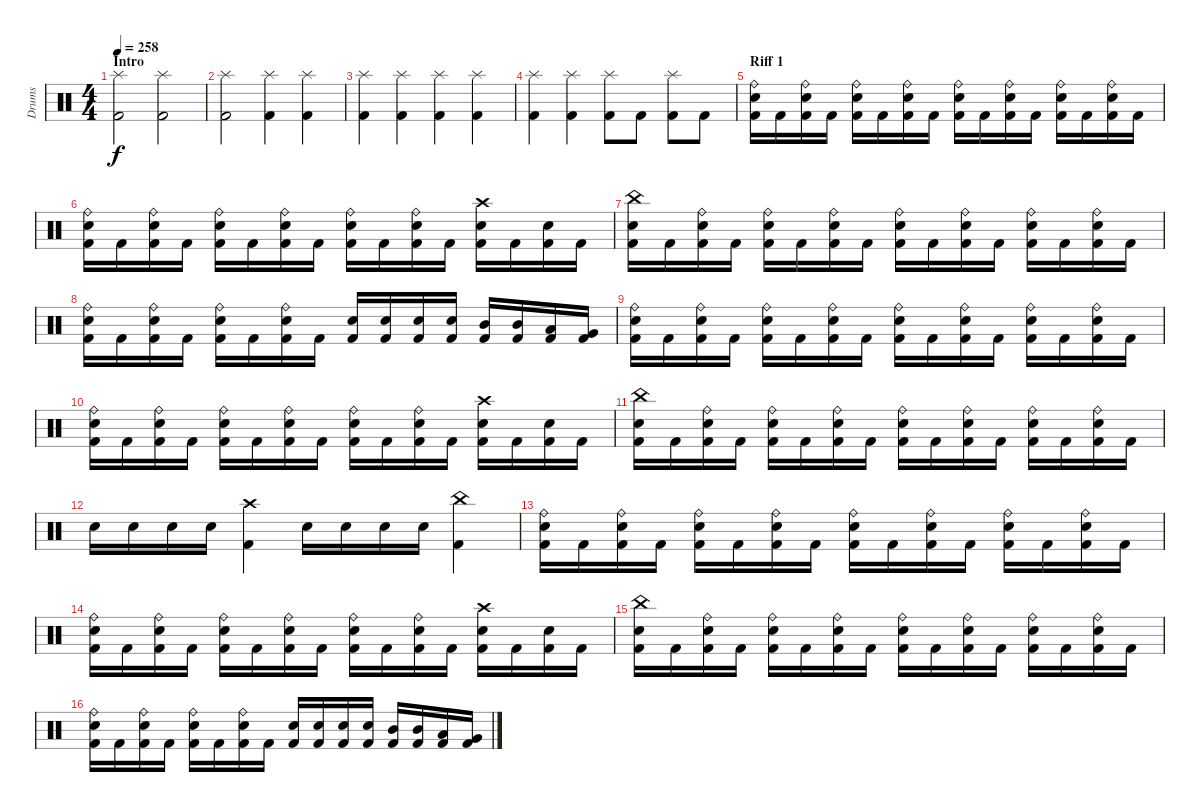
\track ("Drums" "Drums") {instrument percussion}
\staff {score}
\articulation defaults
\ts (4 4)
\section ("" "Intro")
\tempo 258
\clef neutral
\ks c
("Kick (hit) 2" "Splash (hit)").2{dy f} ("Kick (hit) 2" "Splash (hit)").2 |
("Kick (hit) 2" "Splash (hit)").2 ("Kick (hit) 2" "Splash (hit)").4 ("Kick (hit) 2" "Splash (hit)").4 |
("Kick (hit) 2" "Splash (hit)").4 ("Kick (hit) 2" "Splash (hit)").4 ("Kick (hit) 2" "Splash (hit)").4 ("Kick (hit) 2" "Splash (hit)").4 |
("Kick (hit) 2" "Splash (hit)").4 ("Kick (hit) 2" "Splash (hit)").4 ("Kick (hit) 2" "Splash (hit)").8 "Kick (hit) 2".8 ("Kick (hit) 2" "Splash (hit)").8 "Kick (hit) 2".8 |
\section ("" "Riff 1")
("Kick (hit) 2" "Snare (hit) 2" "Ride (bell)").16 "Kick (hit) 2".16 ("Kick (hit) 2" "Snare (hit) 2" "Ride (bell)").16 "Kick (hit) 2".16 ("Kick (hit) 2" "Snare (hit) 2" "Ride (bell)").16 "Kick (hit) 2".16 ("Kick (hit) 2" "Snare (hit) 2" "Ride (bell)").16 "Kick (hit) 2".16 ("Kick (hit) 2" "Snare (hit) 2" "Ride (bell)").16 "Kick (hit) 2".16 ("Kick (hit) 2" "Snare (hit) 2" "Ride (bell)").16 "Kick (hit) 2".16 ("Kick (hit) 2" "Snare (hit) 2" "Ride (bell)").16 "Kick (hit) 2".16 ("Kick (hit) 2" "Snare (hit) 2" "Ride (bell)").16 "Kick (hit) 2".16 |
("Kick (hit) 2" "Snare (hit) 2" "Ride (bell)").16 "Kick (hit) 2".16 ("Kick (hit) 2" "Snare (hit) 2" "Ride (bell)").16 "Kick (hit) 2".16 ("Kick (hit) 2" "Snare (hit) 2" "Ride (bell)").16 "Kick (hit) 2".16 ("Kick (hit) 2" "Snare (hit) 2" "Ride (bell)").16 "Kick (hit) 2".16 ("Kick (hit) 2" "Snare (hit) 2" "Ride (bell)").16 "Kick (hit) 2".16 ("Kick (hit) 2" "Snare (hit) 2" "Ride (bell)").16 "Kick (hit) 2".16 ("Kick (hit) 2" "Snare (hit) 2" "Crash high (hit)").16 "Kick (hit) 2".16 ("Kick (hit) 2" "Snare (hit) 2").16 "Kick (hit) 2".16 |
("Kick (hit) 2" "Snare (hit) 2" "China (hit)").16 "Kick (hit) 2".16 ("Kick (hit) 2" "Snare (hit) 2" "Ride (bell)").16 "Kick (hit) 2".16 ("Kick (hit) 2" "Snare (hit) 2" "Ride (bell)").16 "Kick (hit) 2".16 ("Kick (hit) 2" "Snare (hit) 2" "Ride (bell)").16 "Kick (hit) 2".16 ("Kick (hit) 2" "Snare (hit) 2" "Ride (bell)").16 "Kick (hit) 2".16 ("Kick (hit) 2" "Snare (hit) 2" "Ride (bell)").16 "Kick (hit) 2".16 ("Kick (hit) 2" "Snare (hit) 2" "Ride (bell)").16 "Kick (hit) 2".16 ("Kick (hit) 2" "Snare (hit) 2" "Ride (bell)").16 "Kick (hit) 2".16 |
("Kick (hit) 2" "Snare (hit) 2" "Ride (bell)").16 "Kick (hit) 2".16 ("Kick (hit) 2" "Snare (hit) 2" "Ride (bell)").16 "Kick (hit) 2".16 ("Kick (hit) 2" "Snare (hit) 2" "Ride (bell)").16 "Kick (hit) 2".16 ("Kick (hit) 2" "Snare (hit) 2" "Ride (bell)").16 "Kick (hit) 2".16 ("Kick (hit) 2" "Snare (hit) 2").16 ("Kick (hit) 2" "Snare (hit) 2").16 ("Kick (hit) 2" "Snare (hit) 2").16 ("Kick (hit) 2" "Snare (hit) 2").16 ("Kick (hit) 2" "Mid Tom (hit)").16 ("Kick (hit) 2" "Mid Tom (hit)").16 ("Kick (hit) 2" "Low Tom (hit)").16 ("Kick (hit) 2" "Very Low Tom (hit)").16 |
("Kick (hit) 2" "Snare (hit) 2" "Ride (bell)").16 "Kick (hit) 2".16 ("Kick (hit) 2" "Snare (hit) 2" "Ride (bell)").16 "Kick (hit) 2".16 ("Kick (hit) 2" "Snare (hit) 2" "Ride (bell)").16 "Kick (hit) 2".16 ("Kick (hit) 2" "Snare (hit) 2" "Ride (bell)").16 "Kick (hit) 2".16 ("Kick (hit) 2" "Snare (hit) 2" "Ride (bell)").16 "Kick (hit) 2".16 ("Kick (hit) 2" "Snare (hit) 2" "Ride (bell)").16 "Kick (hit) 2".16 ("Kick (hit) 2" "Snare (hit) 2" "Ride (bell)").16 "Kick (hit) 2".16 ("Kick (hit) 2" "Snare (hit) 2" "Ride (bell)").16 "Kick (hit) 2".16 |
("Kick (hit) 2" "Snare (hit) 2" "Ride (bell)").16 "Kick (hit) 2".16 ("Kick (hit) 2" "Snare (hit) 2" "Ride (bell)").16 "Kick (hit) 2".16 ("Kick (hit) 2" "Snare (hit) 2" "Ride (bell)").16 "Kick (hit) 2".16 ("Kick (hit) 2" "Snare (hit) 2" "Ride (bell)").16 "Kick (hit) 2".16 ("Kick (hit) 2" "Snare (hit) 2" "Ride (bell)").16 "Kick (hit) 2".16 ("Kick (hit) 2" "Snare (hit) 2" "Ride (bell)").16 "Kick (hit) 2".16 ("Kick (hit) 2" "Snare (hit) 2" "Crash high (hit)").16 "Kick (hit) 2".16 ("Kick (hit) 2" "Snare (hit) 2").16 "Kick (hit) 2".16 |
("Kick (hit) 2" "Snare (hit) 2" "China (hit)").16 "Kick (hit) 2".16 ("Kick (hit) 2" "Snare (hit) 2" "Ride (bell)").16 "Kick (hit) 2".16 ("Kick (hit) 2" "Snare (hit) 2" "Ride (bell)").16 "Kick (hit) 2".16 ("Kick (hit) 2" "Snare (hit) 2" "Ride (bell)").16 "Kick (hit) 2".16 ("Kick (hit) 2" "Snare (hit) 2" "Ride (bell)").16 "Kick (hit) 2".16 ("Kick (hit) 2" "Snare (hit) 2" "Ride (bell)").16 "Kick (hit) 2".16 ("Kick (hit) 2" "Snare (hit) 2" "Ride (bell)").16 "Kick (hit) 2".16 ("Kick (hit) 2" "Snare (hit) 2" "Ride (bell)").16 "Kick (hit) 2".16 |
"Snare (hit) 2".16 "Snare (hit) 2".16 "Snare (hit) 2".16 "Snare (hit) 2".16 ("Kick (hit) 2" "Crash high (hit)").4 "Snare (hit) 2".16 "Snare (hit) 2".16 "Snare (hit) 2".16 "Snare (hit) 2".16 ("Kick (hit) 2" "China (hit)").4 |
("Kick (hit) 2" "Snare (hit) 2" "Ride (bell)").16 "Kick (hit) 2".16 ("Kick (hit) 2" "Snare (hit) 2" "Ride (bell)").16 "Kick (hit) 2".16 ("Kick (hit) 2" "Snare (hit) 2" "Ride (bell)").16 "Kick (hit) 2".16 ("Kick (hit) 2" "Snare (hit) 2" "Ride (bell)").16 "Kick (hit) 2".16 ("Kick (hit) 2" "Snare (hit) 2" "Ride (bell)").16 "Kick (hit) 2".16 ("Kick (hit) 2" "Snare (hit) 2" "Ride (bell)").16 "Kick (hit) 2".16 ("Kick (hit) 2" "Snare (hit) 2" "Ride (bell)").16 "Kick (hit) 2".16 ("Kick (hit) 2" "Snare (hit) 2" "Ride (bell)").16 "Kick (hit) 2".16 |
("Kick (hit) 2" "Snare (hit) 2" "Ride (bell)").16 "Kick (hit) 2".16 ("Kick (hit) 2" "Snare (hit) 2" "Ride (bell)").16 "Kick (hit) 2".16 ("Kick (hit) 2" "Snare (hit) 2" "Ride (bell)").16 "Kick (hit) 2".16 ("Kick (hit) 2" "Snare (hit) 2" "Ride (bell)").16 "Kick (hit) 2".16 ("Kick (hit) 2" "Snare (hit) 2" "Ride (bell)").16 "Kick (hit) 2".16 ("Kick (hit) 2" "Snare (hit) 2" "Ride (bell)").16 "Kick (hit) 2".16 ("Kick (hit) 2" "Snare (hit) 2" "Crash high (hit)").16 "Kick (hit) 2".16 ("Kick (hit) 2" "Snare (hit) 2").16 "Kick (hit) 2".16 |
("Kick (hit) 2" "Snare (hit) 2" "China (hit)").16 "Kick (hit) 2".16 ("Kick (hit) 2" "Snare (hit) 2" "Ride (bell)").16 "Kick (hit) 2".16 ("Kick (hit) 2" "Snare (hit) 2" "Ride (bell)").16 "Kick (hit) 2".16 ("Kick (hit) 2" "Snare (hit) 2" "Ride (bell)").16 "Kick (hit) 2".16 ("Kick (hit) 2" "Snare (hit) 2" "Ride (bell)").16 "Kick (hit) 2".16 ("Kick (hit) 2" "Snare (hit) 2" "Ride (bell)").16 "Kick (hit) 2".16 ("Kick (hit) 2" "Snare (hit) 2" "Ride (bell)").16 "Kick (hit) 2".16 ("Kick (hit) 2" "Snare (hit) 2" "Ride (bell)").16 "Kick (hit) 2".16 |
("Kick (hit) 2" "Snare (hit) 2" "Ride (bell)").16 "Kick (hit) 2".16 ("Kick (hit) 2" "Snare (hit) 2" "Ride (bell)").16 "Kick (hit) 2".16 ("Kick (hit) 2" "Snare (hit) 2" "Ride (bell)").16 "Kick (hit) 2".16 ("Kick (hit) 2" "Snare (hit) 2" "Ride (bell)").16 "Kick (hit) 2".16 ("Kick (hit) 2" "Snare (hit) 2").16 ("Kick (hit) 2" "Snare (hit) 2").16 ("Kick (hit) 2" "Snare (hit) 2").16 ("Kick (hit) 2" "Snare (hit) 2").16 ("Kick (hit) 2" "Mid Tom (hit)").16 ("Kick (hit) 2" "Mid Tom (hit)").16 ("Kick (hit) 2" "Low Tom (hit)").16 ("Kick (hit) 2" "Very Low Tom (hit)").16
